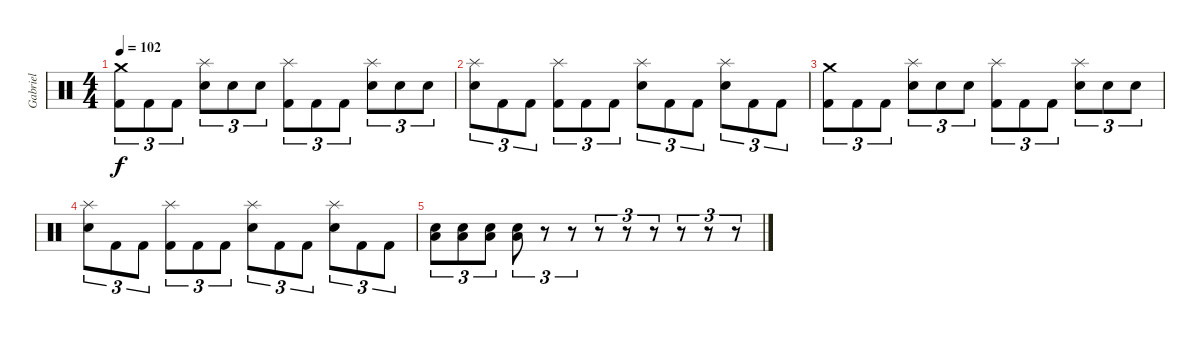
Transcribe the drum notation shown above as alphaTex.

\track ("Gabriel" "Gabriel") {instrument percussion}
\staff {score}
\articulation defaults
\ts (4 4)
\tempo 102
\clef neutral
\ks c
("Crash medium (hit)" "Kick (hit) 2").8{tu (3 2) dy f} "Kick (hit) 2".8{tu (3 2)} "Kick (hit) 2".8{tu (3 2)} ("Splash (hit)" "Electric Snare (hit)").8{tu (3 2)} "Electric Snare (hit)".8{tu (3 2)} "Electric Snare (hit)".8{tu (3 2)} ("Splash (hit)" "Kick (hit) 2").8{tu (3 2)} "Kick (hit) 2".8{tu (3 2)} "Kick (hit) 2".8{tu (3 2)} ("Splash (hit)" "Electric Snare (hit)").8{tu (3 2)} "Electric Snare (hit)".8{tu (3 2)} "Electric Snare (hit)".8{tu (3 2)} |
("Splash (hit)" "Electric Snare (hit)").8{tu (3 2)} "Kick (hit) 2".8{tu (3 2)} "Kick (hit) 2".8{tu (3 2)} ("Splash (hit)" "Kick (hit) 2").8{tu (3 2)} "Kick (hit) 2".8{tu (3 2)} "Kick (hit) 2".8{tu (3 2)} ("Splash (hit)" "Electric Snare (hit)").8{tu (3 2)} "Kick (hit) 2".8{tu (3 2)} "Kick (hit) 2".8{tu (3 2)} ("Splash (hit)" "Electric Snare (hit)").8{tu (3 2)} "Kick (hit) 2".8{tu (3 2)} "Kick (hit) 2".8{tu (3 2)} |
("Crash medium (hit)" "Kick (hit) 2").8{tu (3 2)} "Kick (hit) 2".8{tu (3 2)} "Kick (hit) 2".8{tu (3 2)} ("Splash (hit)" "Electric Snare (hit)").8{tu (3 2)} "Electric Snare (hit)".8{tu (3 2)} "Electric Snare (hit)".8{tu (3 2)} ("Splash (hit)" "Kick (hit) 2").8{tu (3 2)} "Kick (hit) 2".8{tu (3 2)} "Kick (hit) 2".8{tu (3 2)} ("Splash (hit)" "Electric Snare (hit)").8{tu (3 2)} "Electric Snare (hit)".8{tu (3 2)} "Electric Snare (hit)".8{tu (3 2)} |
("Splash (hit)" "Electric Snare (hit)").8{tu (3 2)} "Kick (hit) 2".8{tu (3 2)} "Kick (hit) 2".8{tu (3 2)} ("Splash (hit)" "Kick (hit) 2").8{tu (3 2)} "Kick (hit) 2".8{tu (3 2)} "Kick (hit) 2".8{tu (3 2)} ("Splash (hit)" "Electric Snare (hit)").8{tu (3 2)} "Kick (hit) 2".8{tu (3 2)} "Kick (hit) 2".8{tu (3 2)} ("Splash (hit)" "Electric Snare (hit)").8{tu (3 2)} "Kick (hit) 2".8{tu (3 2)} "Kick (hit) 2".8{tu (3 2)} |
("Low Tom (hit)" "Electric Snare (hit)").8{tu (3 2)} ("Low Tom (hit)" "Electric Snare (hit)").8{tu (3 2)} ("Low Tom (hit)" "Electric Snare (hit)").8{tu (3 2)} ("Low Tom (hit)" "Electric Snare (hit)").8{tu (3 2)} r.8{tu (3 2)} r.8{tu (3 2)} r.8{tu (3 2)} r.8{tu (3 2)} r.8{tu (3 2)} r.8{tu (3 2)} r.8{tu (3 2)} r.8{tu (3 2)}
